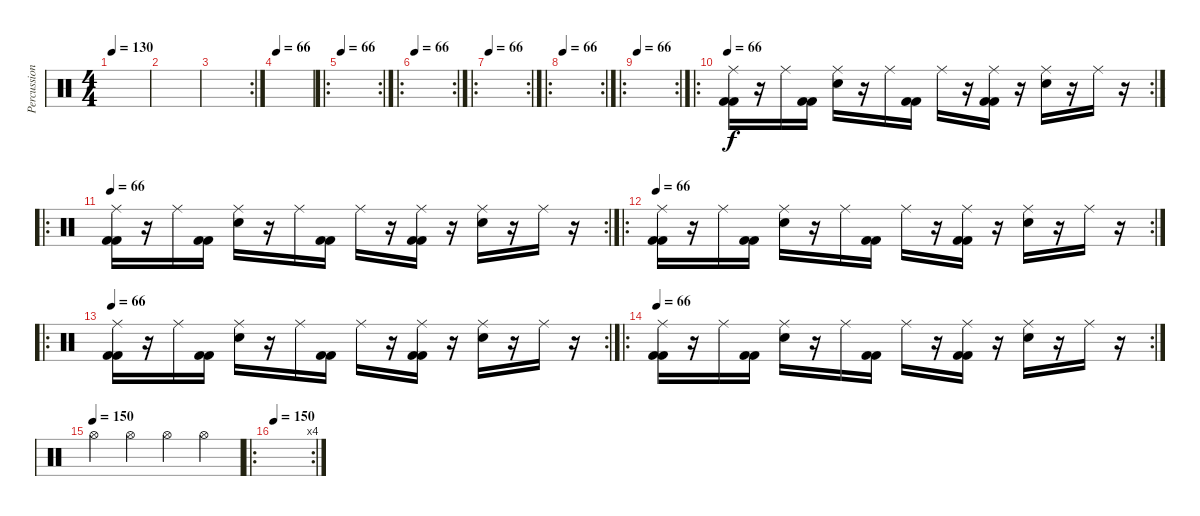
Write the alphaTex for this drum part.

\track ("Percussion" "Percussion") {instrument percussion}
\staff {score}
\articulation defaults
\ts (4 4)
\tempo 130
\clef neutral
\ks c
|
|
\rc 2
|
\tempo 66
|
\ro
\rc 2
\tempo 66
|
\ro
\rc 2
\tempo 66
|
\ro
\rc 2
\tempo 66
|
\ro
\rc 2
\tempo 66
|
\ro
\rc 2
\tempo 66
|
\ro
\rc 2
\tempo 66
("Ride (middle)" "Kick (hit) 2" "Kick (hit) 2").16 r.16 "Ride (middle)".16 ("Kick (hit) 2" "Kick (hit) 2").16 ("Ride (middle)" "Snare (hit) 2").16 r.16 "Ride (middle)".16 ("Kick (hit) 2" "Kick (hit) 2").16 "Ride (middle)".16 r.16 ("Ride (middle)" "Kick (hit) 2" "Kick (hit) 2").16 r.16 ("Ride (middle)" "Snare (hit) 2").16 r.16 "Ride (middle)".16 r.16 |
\ro
\rc 2
\tempo 66
("Ride (middle)" "Kick (hit) 2" "Kick (hit) 2").16 r.16 "Ride (middle)".16 ("Kick (hit) 2" "Kick (hit) 2").16 ("Ride (middle)" "Snare (hit) 2").16 r.16 "Ride (middle)".16 ("Kick (hit) 2" "Kick (hit) 2").16 "Ride (middle)".16 r.16 ("Ride (middle)" "Kick (hit) 2" "Kick (hit) 2").16 r.16 ("Ride (middle)" "Snare (hit) 2").16 r.16 "Ride (middle)".16 r.16 |
\ro
\rc 2
\tempo 66
("Ride (middle)" "Kick (hit) 2" "Kick (hit) 2").16 r.16 "Ride (middle)".16 ("Kick (hit) 2" "Kick (hit) 2").16 ("Ride (middle)" "Snare (hit) 2").16 r.16 "Ride (middle)".16 ("Kick (hit) 2" "Kick (hit) 2").16 "Ride (middle)".16 r.16 ("Ride (middle)" "Kick (hit) 2" "Kick (hit) 2").16 r.16 ("Ride (middle)" "Snare (hit) 2").16 r.16 "Ride (middle)".16 r.16 |
\ro
\rc 2
\tempo 66
("Ride (middle)" "Kick (hit) 2" "Kick (hit) 2").16 r.16 "Ride (middle)".16 ("Kick (hit) 2" "Kick (hit) 2").16 ("Ride (middle)" "Snare (hit) 2").16 r.16 "Ride (middle)".16 ("Kick (hit) 2" "Kick (hit) 2").16 "Ride (middle)".16 r.16 ("Ride (middle)" "Kick (hit) 2" "Kick (hit) 2").16 r.16 ("Ride (middle)" "Snare (hit) 2").16 r.16 "Ride (middle)".16 r.16 |
\ro
\rc 2
\tempo 66
("Ride (middle)" "Kick (hit) 2" "Kick (hit) 2").16 r.16 "Ride (middle)".16 ("Kick (hit) 2" "Kick (hit) 2").16 ("Ride (middle)" "Snare (hit) 2").16 r.16 "Ride (middle)".16 ("Kick (hit) 2" "Kick (hit) 2").16 "Ride (middle)".16 r.16 ("Ride (middle)" "Kick (hit) 2" "Kick (hit) 2").16 r.16 ("Ride (middle)" "Snare (hit) 2").16 r.16 "Ride (middle)".16 r.16 |
\tempo (150)
"Hi-Hat (open)".4 "Hi-Hat (open)".4 "Hi-Hat (open)".4 "Hi-Hat (open)".4 |
\ro
\rc 4
\tempo 150
